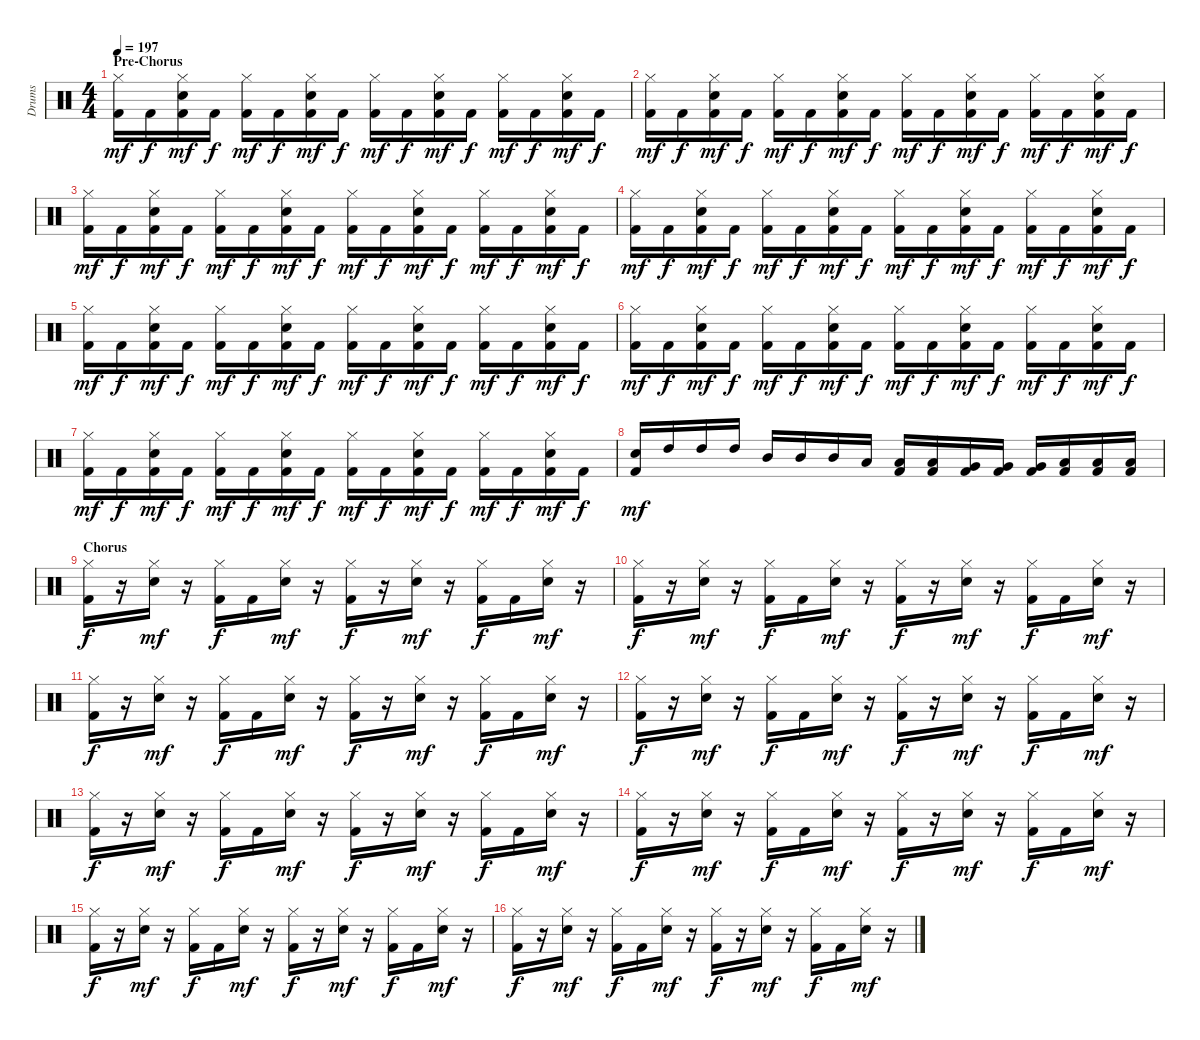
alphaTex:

\track ("Drums" "Drums") {instrument percussion}
\staff {score}
\articulation defaults
\ts (4 4)
\section ("" "Pre-Chorus")
\tempo 197
\clef neutral
\ks c
("Kick (hit) 2" "Hi-Hat (closed)").16{dy mf} "Kick (hit) 2".16{dy f} ("Kick (hit) 2" "Snare (hit) 2" "Hi-Hat (closed)").16{dy mf} "Kick (hit) 2".16{dy f} ("Kick (hit) 2" "Hi-Hat (closed)").16{dy mf} "Kick (hit) 2".16{dy f} ("Kick (hit) 2" "Snare (hit) 2" "Hi-Hat (closed)").16{dy mf} "Kick (hit) 2".16{dy f} ("Kick (hit) 2" "Hi-Hat (closed)").16{dy mf} "Kick (hit) 2".16{dy f} ("Kick (hit) 2" "Snare (hit) 2" "Hi-Hat (closed)").16{dy mf} "Kick (hit) 2".16{dy f} ("Kick (hit) 2" "Hi-Hat (closed)").16{dy mf} "Kick (hit) 2".16{dy f} ("Kick (hit) 2" "Snare (hit) 2" "Hi-Hat (closed)").16{dy mf} "Kick (hit) 2".16{dy f} |
("Kick (hit) 2" "Hi-Hat (closed)").16{dy mf} "Kick (hit) 2".16{dy f} ("Kick (hit) 2" "Snare (hit) 2" "Hi-Hat (closed)").16{dy mf} "Kick (hit) 2".16{dy f} ("Kick (hit) 2" "Hi-Hat (closed)").16{dy mf} "Kick (hit) 2".16{dy f} ("Kick (hit) 2" "Snare (hit) 2" "Hi-Hat (closed)").16{dy mf} "Kick (hit) 2".16{dy f} ("Kick (hit) 2" "Hi-Hat (closed)").16{dy mf} "Kick (hit) 2".16{dy f} ("Kick (hit) 2" "Snare (hit) 2" "Hi-Hat (closed)").16{dy mf} "Kick (hit) 2".16{dy f} ("Kick (hit) 2" "Hi-Hat (closed)").16{dy mf} "Kick (hit) 2".16{dy f} ("Kick (hit) 2" "Snare (hit) 2" "Hi-Hat (closed)").16{dy mf} "Kick (hit) 2".16{dy f} |
("Kick (hit) 2" "Hi-Hat (closed)").16{dy mf} "Kick (hit) 2".16{dy f} ("Kick (hit) 2" "Snare (hit) 2" "Hi-Hat (closed)").16{dy mf} "Kick (hit) 2".16{dy f} ("Kick (hit) 2" "Hi-Hat (closed)").16{dy mf} "Kick (hit) 2".16{dy f} ("Kick (hit) 2" "Snare (hit) 2" "Hi-Hat (closed)").16{dy mf} "Kick (hit) 2".16{dy f} ("Kick (hit) 2" "Hi-Hat (closed)").16{dy mf} "Kick (hit) 2".16{dy f} ("Kick (hit) 2" "Snare (hit) 2" "Hi-Hat (closed)").16{dy mf} "Kick (hit) 2".16{dy f} ("Kick (hit) 2" "Hi-Hat (closed)").16{dy mf} "Kick (hit) 2".16{dy f} ("Kick (hit) 2" "Snare (hit) 2" "Hi-Hat (closed)").16{dy mf} "Kick (hit) 2".16{dy f} |
("Kick (hit) 2" "Hi-Hat (closed)").16{dy mf} "Kick (hit) 2".16{dy f} ("Kick (hit) 2" "Snare (hit) 2" "Hi-Hat (closed)").16{dy mf} "Kick (hit) 2".16{dy f} ("Kick (hit) 2" "Hi-Hat (closed)").16{dy mf} "Kick (hit) 2".16{dy f} ("Kick (hit) 2" "Snare (hit) 2" "Hi-Hat (closed)").16{dy mf} "Kick (hit) 2".16{dy f} ("Kick (hit) 2" "Hi-Hat (closed)").16{dy mf} "Kick (hit) 2".16{dy f} ("Kick (hit) 2" "Snare (hit) 2" "Hi-Hat (closed)").16{dy mf} "Kick (hit) 2".16{dy f} ("Kick (hit) 2" "Hi-Hat (closed)").16{dy mf} "Kick (hit) 2".16{dy f} ("Kick (hit) 2" "Snare (hit) 2" "Hi-Hat (closed)").16{dy mf} "Kick (hit) 2".16{dy f} |
("Kick (hit) 2" "Hi-Hat (closed)").16{dy mf} "Kick (hit) 2".16{dy f} ("Kick (hit) 2" "Snare (hit) 2" "Hi-Hat (closed)").16{dy mf} "Kick (hit) 2".16{dy f} ("Kick (hit) 2" "Hi-Hat (closed)").16{dy mf} "Kick (hit) 2".16{dy f} ("Kick (hit) 2" "Snare (hit) 2" "Hi-Hat (closed)").16{dy mf} "Kick (hit) 2".16{dy f} ("Kick (hit) 2" "Hi-Hat (closed)").16{dy mf} "Kick (hit) 2".16{dy f} ("Kick (hit) 2" "Snare (hit) 2" "Hi-Hat (closed)").16{dy mf} "Kick (hit) 2".16{dy f} ("Kick (hit) 2" "Hi-Hat (closed)").16{dy mf} "Kick (hit) 2".16{dy f} ("Kick (hit) 2" "Snare (hit) 2" "Hi-Hat (closed)").16{dy mf} "Kick (hit) 2".16{dy f} |
("Kick (hit) 2" "Hi-Hat (closed)").16{dy mf} "Kick (hit) 2".16{dy f} ("Kick (hit) 2" "Snare (hit) 2" "Hi-Hat (closed)").16{dy mf} "Kick (hit) 2".16{dy f} ("Kick (hit) 2" "Hi-Hat (closed)").16{dy mf} "Kick (hit) 2".16{dy f} ("Kick (hit) 2" "Snare (hit) 2" "Hi-Hat (closed)").16{dy mf} "Kick (hit) 2".16{dy f} ("Kick (hit) 2" "Hi-Hat (closed)").16{dy mf} "Kick (hit) 2".16{dy f} ("Kick (hit) 2" "Snare (hit) 2" "Hi-Hat (closed)").16{dy mf} "Kick (hit) 2".16{dy f} ("Kick (hit) 2" "Hi-Hat (closed)").16{dy mf} "Kick (hit) 2".16{dy f} ("Kick (hit) 2" "Snare (hit) 2" "Hi-Hat (closed)").16{dy mf} "Kick (hit) 2".16{dy f} |
("Kick (hit) 2" "Hi-Hat (closed)").16{dy mf} "Kick (hit) 2".16{dy f} ("Kick (hit) 2" "Snare (hit) 2" "Hi-Hat (closed)").16{dy mf} "Kick (hit) 2".16{dy f} ("Kick (hit) 2" "Hi-Hat (closed)").16{dy mf} "Kick (hit) 2".16{dy f} ("Kick (hit) 2" "Snare (hit) 2" "Hi-Hat (closed)").16{dy mf} "Kick (hit) 2".16{dy f} ("Kick (hit) 2" "Hi-Hat (closed)").16{dy mf} "Kick (hit) 2".16{dy f} ("Kick (hit) 2" "Snare (hit) 2" "Hi-Hat (closed)").16{dy mf} "Kick (hit) 2".16{dy f} ("Kick (hit) 2" "Hi-Hat (closed)").16{dy mf} "Kick (hit) 2".16{dy f} ("Kick (hit) 2" "Snare (hit) 2" "Hi-Hat (closed)").16{dy mf} "Kick (hit) 2".16{dy f} |
("Kick (hit) 2" "Snare (hit) 2").16{dy mf} "High Tom (hit)".16 "High Tom (hit)".16 "High Tom (hit)".16 "Mid Tom (hit)".16 "Mid Tom (hit)".16 "Mid Tom (hit)".16 "Low Tom (hit)".16 ("Kick (hit) 2" "Low Tom (hit)").16 ("Kick (hit) 2" "Low Tom (hit)").16 ("Kick (hit) 2" "Very Low Tom (hit)").16 ("Kick (hit) 2" "Very Low Tom (hit)").16 ("Kick (hit) 2" "Very Low Tom (hit)").16 ("Kick (hit) 2" "Low Floor Tom (hit)").16 ("Kick (hit) 2" "Low Floor Tom (hit)").16 ("Kick (hit) 2" "Low Floor Tom (hit)").16 |
\section ("" "Chorus")
("Kick (hit) 2" "Hi-Hat (closed)").16{dy f} r.16 ("Snare (hit) 2" "Hi-Hat (closed)").16{dy mf} r.16 ("Kick (hit) 2" "Hi-Hat (closed)").16{dy f} "Kick (hit) 2".16 ("Snare (hit) 2" "Hi-Hat (closed)").16{dy mf} r.16 ("Kick (hit) 2" "Hi-Hat (closed)").16{dy f} r.16 ("Snare (hit) 2" "Hi-Hat (closed)").16{dy mf} r.16 ("Kick (hit) 2" "Hi-Hat (closed)").16{dy f} "Kick (hit) 2".16 ("Snare (hit) 2" "Hi-Hat (closed)").16{dy mf} r.16 |
("Kick (hit) 2" "Hi-Hat (closed)").16{dy f} r.16 ("Snare (hit) 2" "Hi-Hat (closed)").16{dy mf} r.16 ("Kick (hit) 2" "Hi-Hat (closed)").16{dy f} "Kick (hit) 2".16 ("Snare (hit) 2" "Hi-Hat (closed)").16{dy mf} r.16 ("Kick (hit) 2" "Hi-Hat (closed)").16{dy f} r.16 ("Snare (hit) 2" "Hi-Hat (closed)").16{dy mf} r.16 ("Kick (hit) 2" "Hi-Hat (closed)").16{dy f} "Kick (hit) 2".16 ("Snare (hit) 2" "Hi-Hat (closed)").16{dy mf} r.16 |
("Kick (hit) 2" "Hi-Hat (closed)").16{dy f} r.16 ("Snare (hit) 2" "Hi-Hat (closed)").16{dy mf} r.16 ("Kick (hit) 2" "Hi-Hat (closed)").16{dy f} "Kick (hit) 2".16 ("Snare (hit) 2" "Hi-Hat (closed)").16{dy mf} r.16 ("Kick (hit) 2" "Hi-Hat (closed)").16{dy f} r.16 ("Snare (hit) 2" "Hi-Hat (closed)").16{dy mf} r.16 ("Kick (hit) 2" "Hi-Hat (closed)").16{dy f} "Kick (hit) 2".16 ("Snare (hit) 2" "Hi-Hat (closed)").16{dy mf} r.16 |
("Kick (hit) 2" "Hi-Hat (closed)").16{dy f} r.16 ("Snare (hit) 2" "Hi-Hat (closed)").16{dy mf} r.16 ("Kick (hit) 2" "Hi-Hat (closed)").16{dy f} "Kick (hit) 2".16 ("Snare (hit) 2" "Hi-Hat (closed)").16{dy mf} r.16 ("Kick (hit) 2" "Hi-Hat (closed)").16{dy f} r.16 ("Snare (hit) 2" "Hi-Hat (closed)").16{dy mf} r.16 ("Kick (hit) 2" "Hi-Hat (closed)").16{dy f} "Kick (hit) 2".16 ("Snare (hit) 2" "Hi-Hat (closed)").16{dy mf} r.16 |
("Kick (hit) 2" "Hi-Hat (closed)").16{dy f} r.16 ("Snare (hit) 2" "Hi-Hat (closed)").16{dy mf} r.16 ("Kick (hit) 2" "Hi-Hat (closed)").16{dy f} "Kick (hit) 2".16 ("Snare (hit) 2" "Hi-Hat (closed)").16{dy mf} r.16 ("Kick (hit) 2" "Hi-Hat (closed)").16{dy f} r.16 ("Snare (hit) 2" "Hi-Hat (closed)").16{dy mf} r.16 ("Kick (hit) 2" "Hi-Hat (closed)").16{dy f} "Kick (hit) 2".16 ("Snare (hit) 2" "Hi-Hat (closed)").16{dy mf} r.16 |
("Kick (hit) 2" "Hi-Hat (closed)").16{dy f} r.16 ("Snare (hit) 2" "Hi-Hat (closed)").16{dy mf} r.16 ("Kick (hit) 2" "Hi-Hat (closed)").16{dy f} "Kick (hit) 2".16 ("Snare (hit) 2" "Hi-Hat (closed)").16{dy mf} r.16 ("Kick (hit) 2" "Hi-Hat (closed)").16{dy f} r.16 ("Snare (hit) 2" "Hi-Hat (closed)").16{dy mf} r.16 ("Kick (hit) 2" "Hi-Hat (closed)").16{dy f} "Kick (hit) 2".16 ("Snare (hit) 2" "Hi-Hat (closed)").16{dy mf} r.16 |
("Kick (hit) 2" "Hi-Hat (closed)").16{dy f} r.16 ("Snare (hit) 2" "Hi-Hat (closed)").16{dy mf} r.16 ("Kick (hit) 2" "Hi-Hat (closed)").16{dy f} "Kick (hit) 2".16 ("Snare (hit) 2" "Hi-Hat (closed)").16{dy mf} r.16 ("Kick (hit) 2" "Hi-Hat (closed)").16{dy f} r.16 ("Snare (hit) 2" "Hi-Hat (closed)").16{dy mf} r.16 ("Kick (hit) 2" "Hi-Hat (closed)").16{dy f} "Kick (hit) 2".16 ("Snare (hit) 2" "Hi-Hat (closed)").16{dy mf} r.16 |
("Kick (hit) 2" "Hi-Hat (closed)").16{dy f} r.16 ("Snare (hit) 2" "Hi-Hat (closed)").16{dy mf} r.16 ("Kick (hit) 2" "Hi-Hat (closed)").16{dy f} "Kick (hit) 2".16 ("Snare (hit) 2" "Hi-Hat (closed)").16{dy mf} r.16 ("Kick (hit) 2" "Hi-Hat (closed)").16{dy f} r.16 ("Snare (hit) 2" "Hi-Hat (closed)").16{dy mf} r.16 ("Kick (hit) 2" "Hi-Hat (closed)").16{dy f} "Kick (hit) 2".16 ("Snare (hit) 2" "Hi-Hat (closed)").16{dy mf} r.16
